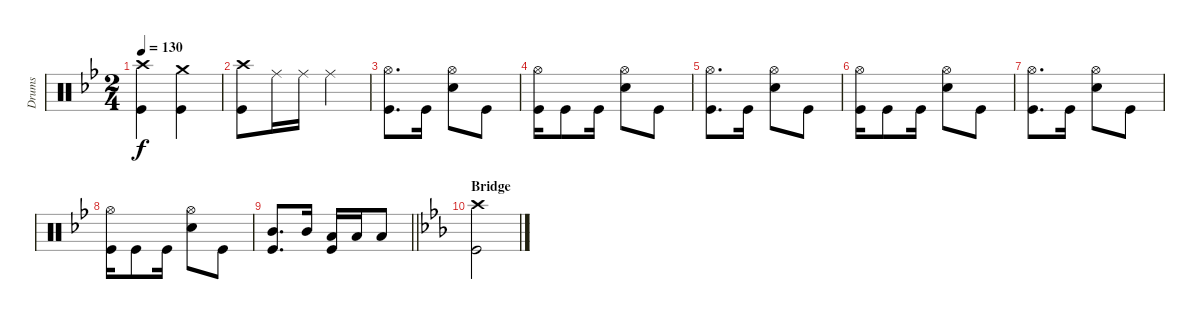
\track ("Drums" "Drums") {instrument percussion}
\staff {score}
\articulation defaults
\ts (2 4)
\tempo 130
\clef neutral
\ks gminor
("Kick (hit)" "Crash high (hit)").4{dy f} ("Kick (hit)" "Crash medium (hit)").4 |
("Kick (hit)" "Crash high (hit)").8 "Ride (middle)".16 "Ride (middle)".16 "Ride (middle)".4 |
("Kick (hit)" "Hi-Hat (open)").8{d} "Kick (hit)".16 ("Snare (hit) 2" "Hi-Hat (open)").8 "Kick (hit)".8 |
("Kick (hit)" "Hi-Hat (open)").16 "Kick (hit)".8 "Kick (hit)".16 ("Snare (hit) 2" "Hi-Hat (open)").8 "Kick (hit)".8 |
("Kick (hit)" "Hi-Hat (open)").8{d} "Kick (hit)".16 ("Snare (hit) 2" "Hi-Hat (open)").8 "Kick (hit)".8 |
("Kick (hit)" "Hi-Hat (open)").16 "Kick (hit)".8 "Kick (hit)".16 ("Snare (hit) 2" "Hi-Hat (open)").8 "Kick (hit)".8 |
("Kick (hit)" "Hi-Hat (open)").8{d} "Kick (hit)".16 ("Snare (hit) 2" "Hi-Hat (open)").8 "Kick (hit)".8 |
("Kick (hit)" "Hi-Hat (open)").16 "Kick (hit)".8 "Kick (hit)".16 ("Snare (hit) 2" "Hi-Hat (open)").8 "Kick (hit)".8 |
\barLineRight lightlight
("Mid Tom (hit)" "Kick (hit)").8{d} "Mid Tom (hit)".16 ("Kick (hit)" "Low Tom (hit)").16 "Low Tom (hit)".16 "Low Tom (hit)".8 |
\section ("" "Bridge")
\ks cminor
("Kick (hit)" "Crash high (hit)").2
